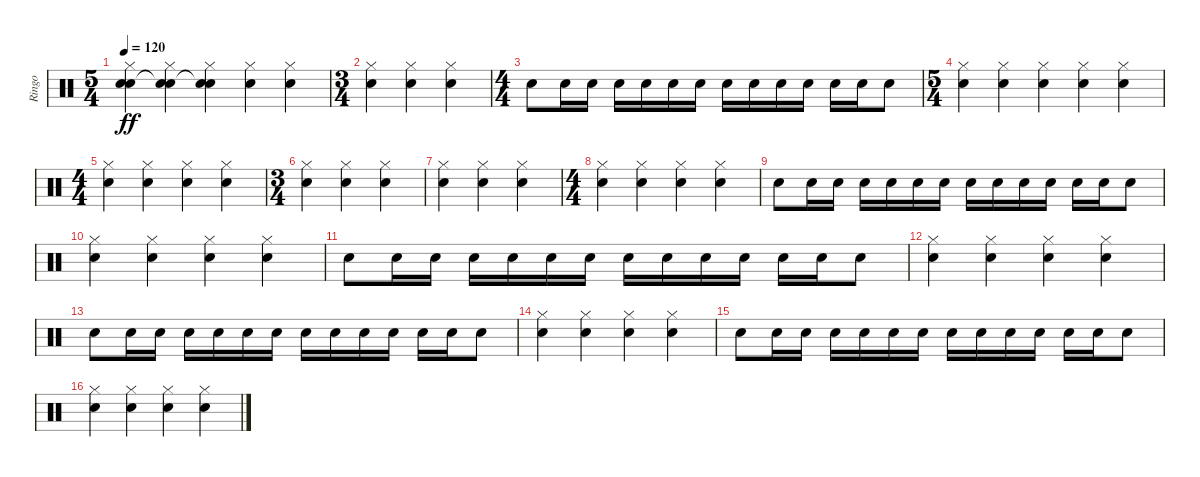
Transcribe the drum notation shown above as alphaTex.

\track ("Ringo" "Ringo") {instrument percussion}
\staff {score}
\articulation defaults
\ts (5 4)
\tempo 120
\clef neutral
\ks c
("Snare (hit)"{t} "Hi-Hat (closed)" "Snare (hit) 2").4{dy ff} ("Snare (hit)"{t} "Hi-Hat (closed)" "Snare (hit) 2").4 ("Snare (hit)"{t} "Hi-Hat (closed)" "Snare (hit) 2").4 ("Hi-Hat (closed)" "Snare (hit) 2").4 ("Hi-Hat (closed)" "Snare (hit) 2").4 |
\ts (3 4)
("Hi-Hat (closed)" "Snare (hit) 2").4 ("Hi-Hat (closed)" "Snare (hit) 2").4 ("Hi-Hat (closed)" "Snare (hit) 2").4 |
\ts (4 4)
"Snare (hit) 2".8 "Snare (hit) 2".16 "Snare (hit) 2".16 "Snare (hit) 2".16 "Snare (hit) 2".16 "Snare (hit) 2".16 "Snare (hit) 2".16 "Snare (hit) 2".16 "Snare (hit) 2".16 "Snare (hit) 2".16 "Snare (hit) 2".16 "Snare (hit) 2".16 "Snare (hit) 2".16 "Snare (hit) 2".8 |
\ts (5 4)
("Hi-Hat (closed)" "Snare (hit) 2").4 ("Hi-Hat (closed)" "Snare (hit) 2").4 ("Hi-Hat (closed)" "Snare (hit) 2").4 ("Hi-Hat (closed)" "Snare (hit) 2").4 ("Hi-Hat (closed)" "Snare (hit) 2").4 |
\ts (4 4)
("Hi-Hat (closed)" "Snare (hit) 2").4 ("Hi-Hat (closed)" "Snare (hit) 2").4 ("Hi-Hat (closed)" "Snare (hit) 2").4 ("Hi-Hat (closed)" "Snare (hit) 2").4 |
\ts (3 4)
("Hi-Hat (closed)" "Snare (hit) 2").4 ("Hi-Hat (closed)" "Snare (hit) 2").4 ("Hi-Hat (closed)" "Snare (hit) 2").4 |
("Hi-Hat (closed)" "Snare (hit) 2").4 ("Hi-Hat (closed)" "Snare (hit) 2").4 ("Hi-Hat (closed)" "Snare (hit) 2").4 |
\ts (4 4)
("Hi-Hat (closed)" "Snare (hit) 2").4 ("Hi-Hat (closed)" "Snare (hit) 2").4 ("Hi-Hat (closed)" "Snare (hit) 2").4 ("Hi-Hat (closed)" "Snare (hit) 2").4 |
"Snare (hit) 2".8 "Snare (hit) 2".16 "Snare (hit) 2".16 "Snare (hit) 2".16 "Snare (hit) 2".16 "Snare (hit) 2".16 "Snare (hit) 2".16 "Snare (hit) 2".16 "Snare (hit) 2".16 "Snare (hit) 2".16 "Snare (hit) 2".16 "Snare (hit) 2".16 "Snare (hit) 2".16 "Snare (hit) 2".8 |
("Hi-Hat (closed)" "Snare (hit) 2").4 ("Hi-Hat (closed)" "Snare (hit) 2").4 ("Hi-Hat (closed)" "Snare (hit) 2").4 ("Hi-Hat (closed)" "Snare (hit) 2").4 |
"Snare (hit) 2".8 "Snare (hit) 2".16 "Snare (hit) 2".16 "Snare (hit) 2".16 "Snare (hit) 2".16 "Snare (hit) 2".16 "Snare (hit) 2".16 "Snare (hit) 2".16 "Snare (hit) 2".16 "Snare (hit) 2".16 "Snare (hit) 2".16 "Snare (hit) 2".16 "Snare (hit) 2".16 "Snare (hit) 2".8 |
("Hi-Hat (closed)" "Snare (hit) 2").4 ("Hi-Hat (closed)" "Snare (hit) 2").4 ("Hi-Hat (closed)" "Snare (hit) 2").4 ("Hi-Hat (closed)" "Snare (hit) 2").4 |
"Snare (hit) 2".8 "Snare (hit) 2".16 "Snare (hit) 2".16 "Snare (hit) 2".16 "Snare (hit) 2".16 "Snare (hit) 2".16 "Snare (hit) 2".16 "Snare (hit) 2".16 "Snare (hit) 2".16 "Snare (hit) 2".16 "Snare (hit) 2".16 "Snare (hit) 2".16 "Snare (hit) 2".16 "Snare (hit) 2".8 |
("Hi-Hat (closed)" "Snare (hit) 2").4 ("Hi-Hat (closed)" "Snare (hit) 2").4 ("Hi-Hat (closed)" "Snare (hit) 2").4 ("Hi-Hat (closed)" "Snare (hit) 2").4 |
"Snare (hit) 2".8 "Snare (hit) 2".16 "Snare (hit) 2".16 "Snare (hit) 2".16 "Snare (hit) 2".16 "Snare (hit) 2".16 "Snare (hit) 2".16 "Snare (hit) 2".16 "Snare (hit) 2".16 "Snare (hit) 2".16 "Snare (hit) 2".16 "Snare (hit) 2".16 "Snare (hit) 2".16 "Snare (hit) 2".8 |
("Hi-Hat (closed)" "Snare (hit) 2").4 ("Hi-Hat (closed)" "Snare (hit) 2").4 ("Hi-Hat (closed)" "Snare (hit) 2").4 ("Hi-Hat (closed)" "Snare (hit) 2").4
